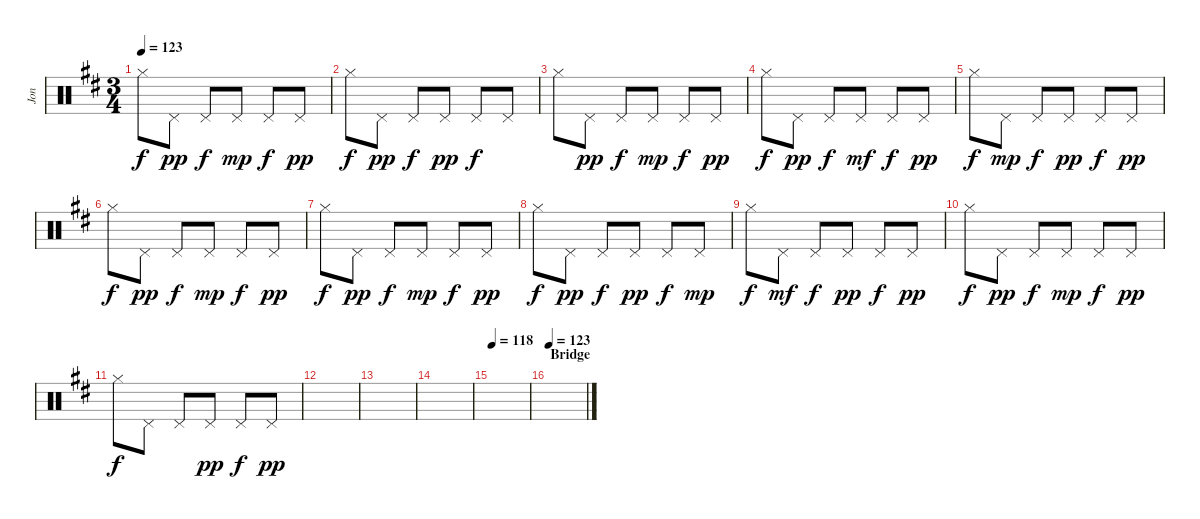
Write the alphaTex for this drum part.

\track ("Jon" "Jon") {instrument percussion}
\staff {score}
\articulation defaults
\ts (3 4)
\tempo 123
\clef neutral
\ks d "Hi-Hat (closed)".8{dy f} "Pedal Hi-Hat (hit)".8{dy pp} "Pedal Hi-Hat (hit)".8{dy f} "Pedal Hi-Hat (hit)".8{dy mp} "Pedal Hi-Hat (hit)".8{dy f} "Pedal Hi-Hat (hit)".8{dy pp}
|
"Hi-Hat (closed)".8{dy f} "Pedal Hi-Hat (hit)".8{dy pp} "Pedal Hi-Hat (hit)".8{dy f} "Pedal Hi-Hat (hit)".8{dy pp} "Pedal Hi-Hat (hit)".8{dy f} "Pedal Hi-Hat (hit)".8 |
"Hi-Hat (closed)".8 "Pedal Hi-Hat (hit)".8{dy pp} "Pedal Hi-Hat (hit)".8{dy f} "Pedal Hi-Hat (hit)".8{dy mp} "Pedal Hi-Hat (hit)".8{dy f} "Pedal Hi-Hat (hit)".8{dy pp} |
\section ("" "")
"Hi-Hat (closed)".8{dy f} "Pedal Hi-Hat (hit)".8{dy pp} "Pedal Hi-Hat (hit)".8{dy f} "Pedal Hi-Hat (hit)".8{dy mf} "Pedal Hi-Hat (hit)".8{dy f} "Pedal Hi-Hat (hit)".8{dy pp} |
"Hi-Hat (closed)".8{dy f} "Pedal Hi-Hat (hit)".8{dy mp} "Pedal Hi-Hat (hit)".8{dy f} "Pedal Hi-Hat (hit)".8{dy pp} "Pedal Hi-Hat (hit)".8{dy f} "Pedal Hi-Hat (hit)".8{dy pp} |
"Hi-Hat (closed)".8{dy f} "Pedal Hi-Hat (hit)".8{dy pp} "Pedal Hi-Hat (hit)".8{dy f} "Pedal Hi-Hat (hit)".8{dy mp} "Pedal Hi-Hat (hit)".8{dy f} "Pedal Hi-Hat (hit)".8{dy pp} |
"Hi-Hat (closed)".8{dy f} "Pedal Hi-Hat (hit)".8{dy pp} "Pedal Hi-Hat (hit)".8{dy f} "Pedal Hi-Hat (hit)".8{dy mp} "Pedal Hi-Hat (hit)".8{dy f} "Pedal Hi-Hat (hit)".8{dy pp} |
\section ("" "")
"Hi-Hat (closed)".8{dy f} "Pedal Hi-Hat (hit)".8{dy pp} "Pedal Hi-Hat (hit)".8{dy f} "Pedal Hi-Hat (hit)".8{dy pp} "Pedal Hi-Hat (hit)".8{dy f} "Pedal Hi-Hat (hit)".8{dy mp} |
"Hi-Hat (closed)".8{dy f} "Pedal Hi-Hat (hit)".8{dy mf} "Pedal Hi-Hat (hit)".8{dy f} "Pedal Hi-Hat (hit)".8{dy pp} "Pedal Hi-Hat (hit)".8{dy f} "Pedal Hi-Hat (hit)".8{dy pp} |
"Hi-Hat (closed)".8{dy f} "Pedal Hi-Hat (hit)".8{dy pp} "Pedal Hi-Hat (hit)".8{dy f} "Pedal Hi-Hat (hit)".8{dy mp} "Pedal Hi-Hat (hit)".8{dy f} "Pedal Hi-Hat (hit)".8{dy pp} |
"Hi-Hat (closed)".8{dy f} "Pedal Hi-Hat (hit)".8 "Pedal Hi-Hat (hit)".8 "Pedal Hi-Hat (hit)".8{dy pp} "Pedal Hi-Hat (hit)".8{dy f} "Pedal Hi-Hat (hit)".8{dy pp} |
\section ("" "")
|
|
|
\tempo 118
|
\section ("" "Bridge")
\tempo 123
